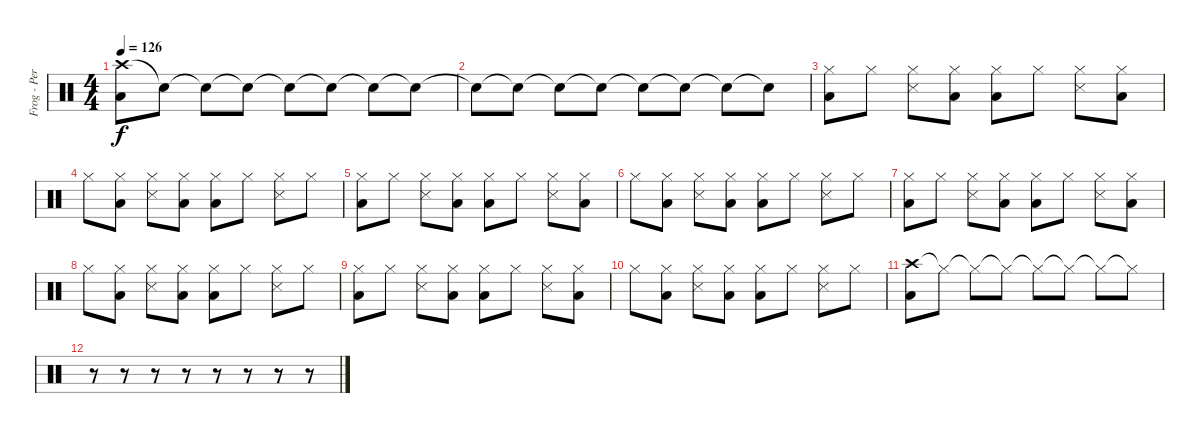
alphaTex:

\track ("Frog - Percussions" "Frog - Per") {instrument percussion}
\staff {score}
\articulation defaults
\ts (4 4)
\tempo 126
\clef neutral
\ks c
("Crash high (hit)" "Low Floor Tom (hit)").8{dy f} "Snare (hit)"{t}.8 "Snare (hit)"{t}.8 "Snare (hit)"{t}.8 "Snare (hit)"{t}.8 "Snare (hit)"{t}.8 "Snare (hit)"{t}.8 "Snare (hit)"{t}.8 |
"Snare (hit)"{t}.8 "Snare (hit)"{t}.8 "Snare (hit)"{t}.8 "Snare (hit)"{t}.8 "Snare (hit)"{t}.8 "Snare (hit)"{t}.8 "Snare (hit)"{t}.8 "Snare (hit)"{t}.8 |
("Hi-Hat (closed)" "Low Floor Tom (hit)").8 "Hi-Hat (closed)".8 ("Hi-Hat (closed)" "Snare (side stick) 3").8 ("Hi-Hat (closed)" "Low Floor Tom (hit)").8 ("Hi-Hat (closed)" "Low Floor Tom (hit)").8 "Hi-Hat (closed)".8 ("Hi-Hat (closed)" "Snare (side stick) 3").8 ("Hi-Hat (closed)" "Low Floor Tom (hit)").8 |
"Hi-Hat (closed)".8 ("Hi-Hat (closed)" "Low Floor Tom (hit)").8 ("Hi-Hat (closed)" "Snare (side stick) 3").8 ("Hi-Hat (closed)" "Low Floor Tom (hit)").8 ("Hi-Hat (closed)" "Low Floor Tom (hit)").8 "Hi-Hat (closed)".8 ("Hi-Hat (closed)" "Snare (side stick) 3").8 "Hi-Hat (closed)".8 |
("Hi-Hat (closed)" "Low Floor Tom (hit)").8 "Hi-Hat (closed)".8 ("Hi-Hat (closed)" "Snare (side stick) 3").8 ("Hi-Hat (closed)" "Low Floor Tom (hit)").8 ("Hi-Hat (closed)" "Low Floor Tom (hit)").8 "Hi-Hat (closed)".8 ("Hi-Hat (closed)" "Snare (side stick) 3").8 ("Hi-Hat (closed)" "Low Floor Tom (hit)").8 |
"Hi-Hat (closed)".8 ("Hi-Hat (closed)" "Low Floor Tom (hit)").8 ("Hi-Hat (closed)" "Snare (side stick) 3").8 ("Hi-Hat (closed)" "Low Floor Tom (hit)").8 ("Hi-Hat (closed)" "Low Floor Tom (hit)").8 "Hi-Hat (closed)".8 ("Hi-Hat (closed)" "Snare (side stick) 3").8 "Hi-Hat (closed)".8 |
("Hi-Hat (closed)" "Low Floor Tom (hit)").8 "Hi-Hat (closed)".8 ("Hi-Hat (closed)" "Snare (side stick) 3").8 ("Hi-Hat (closed)" "Low Floor Tom (hit)").8 ("Hi-Hat (closed)" "Low Floor Tom (hit)").8 "Hi-Hat (closed)".8 ("Hi-Hat (closed)" "Snare (side stick) 3").8 ("Hi-Hat (closed)" "Low Floor Tom (hit)").8 |
"Hi-Hat (closed)".8 ("Hi-Hat (closed)" "Low Floor Tom (hit)").8 ("Hi-Hat (closed)" "Snare (side stick) 3").8 ("Hi-Hat (closed)" "Low Floor Tom (hit)").8 ("Hi-Hat (closed)" "Low Floor Tom (hit)").8 "Hi-Hat (closed)".8 ("Hi-Hat (closed)" "Snare (side stick) 3").8 "Hi-Hat (closed)".8 |
("Hi-Hat (closed)" "Low Floor Tom (hit)").8 "Hi-Hat (closed)".8 ("Hi-Hat (closed)" "Snare (side stick) 3").8 ("Hi-Hat (closed)" "Low Floor Tom (hit)").8 ("Hi-Hat (closed)" "Low Floor Tom (hit)").8 "Hi-Hat (closed)".8 ("Hi-Hat (closed)" "Snare (side stick) 3").8 ("Hi-Hat (closed)" "Low Floor Tom (hit)").8 |
"Hi-Hat (closed)".8 ("Hi-Hat (closed)" "Low Floor Tom (hit)").8 ("Hi-Hat (closed)" "Snare (side stick) 3").8 ("Hi-Hat (closed)" "Low Floor Tom (hit)").8 ("Hi-Hat (closed)" "Low Floor Tom (hit)").8 "Hi-Hat (closed)".8 ("Hi-Hat (closed)" "Snare (side stick) 3").8 "Hi-Hat (closed)".8 |
("Crash high (hit)" "Low Floor Tom (hit)").8 "Hi-Hat (closed)"{t}.8 "Hi-Hat (closed)"{t}.8 "Hi-Hat (closed)"{t}.8 "Hi-Hat (closed)"{t}.8 "Hi-Hat (closed)"{t}.8 "Hi-Hat (closed)"{t}.8 "Hi-Hat (closed)"{t}.8 |
r.8 r.8 r.8 r.8 r.8 r.8 r.8 r.8
